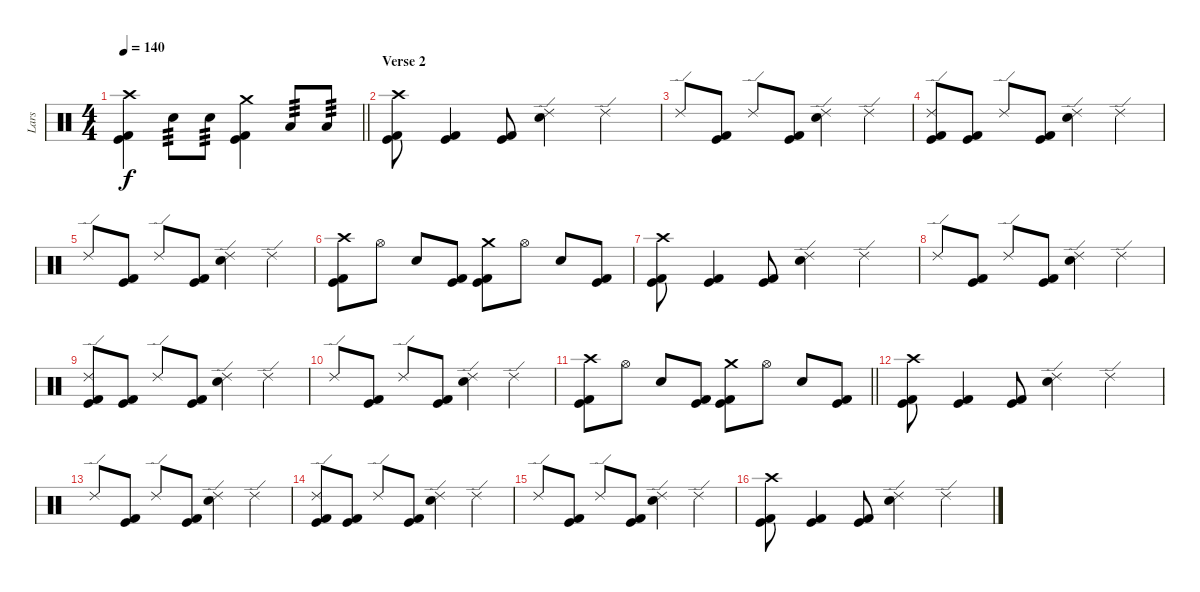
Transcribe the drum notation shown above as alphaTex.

\track ("Lars" "Lars") {instrument percussion}
\staff {score}
\articulation defaults
\ts (4 4)
\tempo 140
\clef neutral
\barLineRight lightlight
\ks c
("Crash high (hit)" "Kick (hit)" "Kick (hit) 2").4{dy f} "Electric Snare (hit)".8{tp 3} "Electric Snare (hit)".8{tp 3} ("Crash medium (hit)" "Kick (hit)" "Kick (hit) 2").4 "Low Tom (hit)".8{tp 3} "Low Tom (hit)".8{tp 3} |
\section ("" "Verse 2")
("Crash high (hit)" "Kick (hit)" "Kick (hit) 2").8 ("Kick (hit)" "Kick (hit) 2").4 ("Kick (hit)" "Kick (hit) 2").8 ("Ride (edge) 2" "Electric Snare (hit)").4 "Ride (edge) 2".4 |
"Ride (edge) 2".8 ("Kick (hit)" "Kick (hit) 2").8 "Ride (edge) 2".8 ("Kick (hit)" "Kick (hit) 2").8 ("Ride (edge) 2" "Electric Snare (hit)").4 "Ride (edge) 2".4 |
("Ride (edge) 2" "Kick (hit)" "Kick (hit) 2").8 ("Kick (hit)" "Kick (hit) 2").8 "Ride (edge) 2".8 ("Kick (hit)" "Kick (hit) 2").8 ("Ride (edge) 2" "Electric Snare (hit)").4 "Ride (edge) 2".4 |
"Ride (edge) 2".8 ("Kick (hit)" "Kick (hit) 2").8 "Ride (edge) 2".8 ("Kick (hit)" "Kick (hit) 2").8 ("Ride (edge) 2" "Electric Snare (hit)").4 "Ride (edge) 2".4 |
("Crash high (hit)" "Kick (hit)" "Kick (hit) 2").8 "Hi-Hat (open)".8 "Electric Snare (hit)".8 ("Kick (hit)" "Kick (hit) 2").8 ("Crash medium (hit)" "Kick (hit)" "Kick (hit) 2").8 "Hi-Hat (open)".8 "Electric Snare (hit)".8 ("Kick (hit)" "Kick (hit) 2").8 |
("Crash high (hit)" "Kick (hit)" "Kick (hit) 2").8 ("Kick (hit)" "Kick (hit) 2").4 ("Kick (hit)" "Kick (hit) 2").8 ("Ride (edge) 2" "Electric Snare (hit)").4 "Ride (edge) 2".4 |
"Ride (edge) 2".8 ("Kick (hit)" "Kick (hit) 2").8 "Ride (edge) 2".8 ("Kick (hit)" "Kick (hit) 2").8 ("Ride (edge) 2" "Electric Snare (hit)").4 "Ride (edge) 2".4 |
("Ride (edge) 2" "Kick (hit)" "Kick (hit) 2").8 ("Kick (hit)" "Kick (hit) 2").8 "Ride (edge) 2".8 ("Kick (hit)" "Kick (hit) 2").8 ("Ride (edge) 2" "Electric Snare (hit)").4 "Ride (edge) 2".4 |
"Ride (edge) 2".8 ("Kick (hit)" "Kick (hit) 2").8 "Ride (edge) 2".8 ("Kick (hit)" "Kick (hit) 2").8 ("Ride (edge) 2" "Electric Snare (hit)").4 "Ride (edge) 2".4 |
\barLineRight lightlight
("Crash high (hit)" "Kick (hit)" "Kick (hit) 2").8 "Hi-Hat (open)".8 "Electric Snare (hit)".8 ("Kick (hit)" "Kick (hit) 2").8 ("Crash medium (hit)" "Kick (hit)" "Kick (hit) 2").8 "Hi-Hat (open)".8 "Electric Snare (hit)".8 ("Kick (hit)" "Kick (hit) 2").8 |
\section ("" "")
("Crash high (hit)" "Kick (hit)" "Kick (hit) 2").8 ("Kick (hit)" "Kick (hit) 2").4 ("Kick (hit)" "Kick (hit) 2").8 ("Ride (edge) 2" "Electric Snare (hit)").4 "Ride (edge) 2".4 |
"Ride (edge) 2".8 ("Kick (hit)" "Kick (hit) 2").8 "Ride (edge) 2".8 ("Kick (hit)" "Kick (hit) 2").8 ("Ride (edge) 2" "Electric Snare (hit)").4 "Ride (edge) 2".4 |
("Ride (edge) 2" "Kick (hit)" "Kick (hit) 2").8 ("Kick (hit)" "Kick (hit) 2").8 "Ride (edge) 2".8 ("Kick (hit)" "Kick (hit) 2").8 ("Ride (edge) 2" "Electric Snare (hit)").4 "Ride (edge) 2".4 |
"Ride (edge) 2".8 ("Kick (hit)" "Kick (hit) 2").8 "Ride (edge) 2".8 ("Kick (hit)" "Kick (hit) 2").8 ("Ride (edge) 2" "Electric Snare (hit)").4 "Ride (edge) 2".4 |
("Crash high (hit)" "Kick (hit)" "Kick (hit) 2").8 ("Kick (hit)" "Kick (hit) 2").4 ("Kick (hit)" "Kick (hit) 2").8 ("Ride (edge) 2" "Electric Snare (hit)").4 "Ride (edge) 2".4
